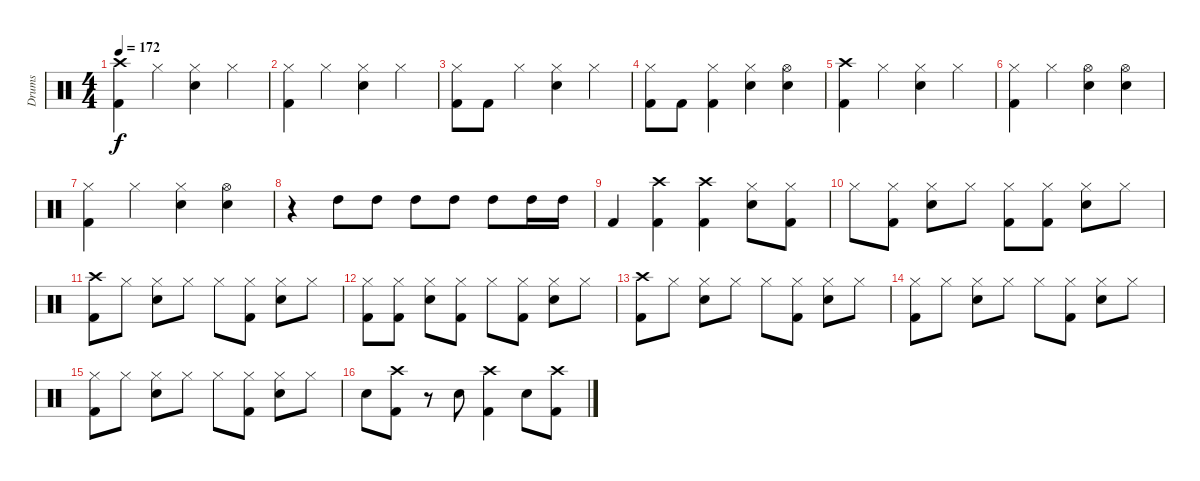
\track ("Drums" "Drums") {instrument percussion}
\staff {score}
\articulation defaults
\ts (4 4)
\tempo 172
\clef neutral
\ks c
("Crash high (hit)" "Kick (hit) 2").4{dy f} "Hi-Hat (closed)".4 ("Hi-Hat (closed)" "Electric Snare (hit)").4 "Hi-Hat (closed)".4 |
("Hi-Hat (closed)" "Kick (hit) 2").4 "Hi-Hat (closed)".4 ("Hi-Hat (closed)" "Electric Snare (hit)").4 "Hi-Hat (closed)".4 |
("Hi-Hat (closed)" "Kick (hit) 2").8 "Kick (hit) 2".8 "Hi-Hat (closed)".4 ("Hi-Hat (closed)" "Electric Snare (hit)").4 "Hi-Hat (closed)".4 |
("Hi-Hat (closed)" "Kick (hit) 2").8 "Kick (hit) 2".8 ("Hi-Hat (closed)" "Kick (hit) 2").4 ("Hi-Hat (closed)" "Electric Snare (hit)").4 ("Hi-Hat (open)" "Electric Snare (hit)").4 |
("Crash high (hit)" "Kick (hit) 2").4 "Hi-Hat (closed)".4 ("Hi-Hat (closed)" "Electric Snare (hit)").4 "Hi-Hat (closed)".4 |
("Hi-Hat (closed)" "Kick (hit) 2").4 "Hi-Hat (closed)".4 ("Hi-Hat (open)" "Electric Snare (hit)").4 ("Hi-Hat (open)" "Electric Snare (hit)").4 |
("Hi-Hat (closed)" "Kick (hit) 2").4 "Hi-Hat (closed)".4 ("Hi-Hat (closed)" "Electric Snare (hit)").4 ("Hi-Hat (open)" "Electric Snare (hit)").4 |
r.4 "High Tom (hit)".8 "High Tom (hit)".8 "High Tom (hit)".8 "High Tom (hit)".8 "High Tom (hit)".8 "High Tom (hit)".16 "High Tom (hit)".16 |
"Kick (hit) 2".4 ("Crash high (hit)" "Kick (hit) 2").4 ("Crash high (hit)" "Kick (hit) 2").4 ("Hi-Hat (closed)" "Electric Snare (hit)").8 ("Hi-Hat (closed)" "Kick (hit) 2").8 |
"Hi-Hat (closed)".8 ("Hi-Hat (closed)" "Kick (hit) 2").8 ("Hi-Hat (closed)" "Electric Snare (hit)").8 "Hi-Hat (closed)".8 ("Hi-Hat (closed)" "Kick (hit) 2").8 ("Hi-Hat (closed)" "Kick (hit) 2").8 ("Hi-Hat (closed)" "Electric Snare (hit)").8 "Hi-Hat (closed)".8 |
("Crash high (hit)" "Kick (hit) 2").8 "Hi-Hat (closed)".8 ("Hi-Hat (closed)" "Electric Snare (hit)").8 "Hi-Hat (closed)".8 "Hi-Hat (closed)".8 ("Hi-Hat (closed)" "Kick (hit) 2").8 ("Hi-Hat (closed)" "Electric Snare (hit)").8 "Hi-Hat (closed)".8 |
("Hi-Hat (closed)" "Kick (hit) 2").8 ("Hi-Hat (closed)" "Kick (hit) 2").8 ("Hi-Hat (closed)" "Electric Snare (hit)").8 ("Hi-Hat (closed)" "Kick (hit) 2").8 "Hi-Hat (closed)".8 ("Hi-Hat (closed)" "Kick (hit) 2").8 ("Hi-Hat (closed)" "Electric Snare (hit)").8 "Hi-Hat (closed)".8 |
("Crash high (hit)" "Kick (hit) 2").8 "Hi-Hat (closed)".8 ("Hi-Hat (closed)" "Electric Snare (hit)").8 "Hi-Hat (closed)".8 "Hi-Hat (closed)".8 ("Hi-Hat (closed)" "Kick (hit) 2").8 ("Hi-Hat (closed)" "Electric Snare (hit)").8 "Hi-Hat (closed)".8 |
("Hi-Hat (closed)" "Kick (hit) 2").8 "Hi-Hat (closed)".8 ("Hi-Hat (closed)" "Electric Snare (hit)").8 "Hi-Hat (closed)".8 "Hi-Hat (closed)".8 ("Hi-Hat (closed)" "Kick (hit) 2").8 ("Hi-Hat (closed)" "Electric Snare (hit)").8 "Hi-Hat (closed)".8 |
("Hi-Hat (closed)" "Kick (hit) 2").8 "Hi-Hat (closed)".8 ("Hi-Hat (closed)" "Electric Snare (hit)").8 "Hi-Hat (closed)".8 "Hi-Hat (closed)".8 ("Hi-Hat (closed)" "Kick (hit) 2").8 ("Hi-Hat (closed)" "Electric Snare (hit)").8 "Hi-Hat (closed)".8 |
"Electric Snare (hit)".8 ("Crash high (hit)" "Kick (hit) 2").8 r.8 "Electric Snare (hit)".8 ("Crash high (hit)" "Kick (hit) 2").4 "Electric Snare (hit)".8 ("Crash high (hit)" "Kick (hit) 2").8
